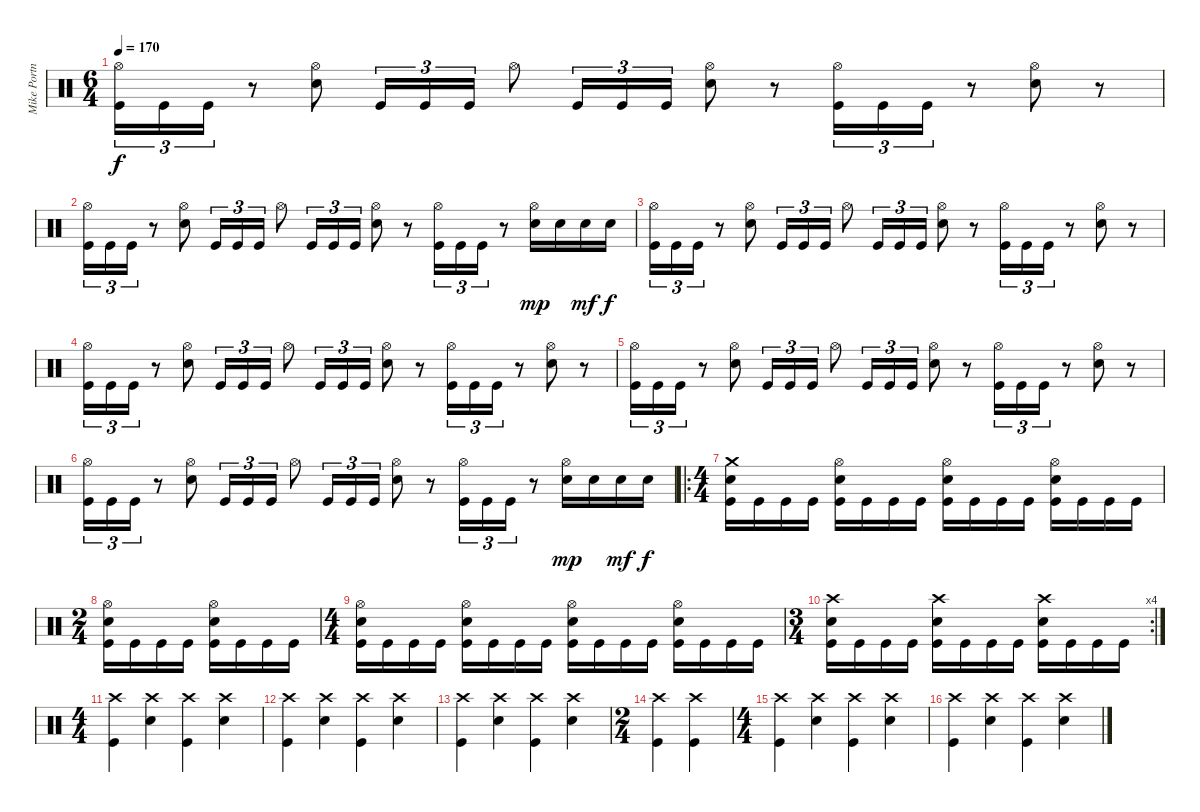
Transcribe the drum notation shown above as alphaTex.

\track ("Mike Portnoy" "Mike Portn") {instrument percussion}
\staff {score}
\articulation defaults
\ts (6 4)
\tempo 170
\clef neutral
\ks c
("Hi-Hat (open)" "Kick (hit)").16{tu (3 2) dy f} "Kick (hit)".16{tu (3 2)} "Kick (hit)".16{tu (3 2)} r.8 ("Hi-Hat (open)" "Electric Snare (hit)").8 "Kick (hit)".16{tu (3 2)} "Kick (hit)".16{tu (3 2)} "Kick (hit)".16{tu (3 2)} "Hi-Hat (open)".8 "Kick (hit)".16{tu (3 2)} "Kick (hit)".16{tu (3 2)} "Kick (hit)".16{tu (3 2)} ("Hi-Hat (open)" "Electric Snare (hit)").8 r.8 ("Hi-Hat (open)" "Kick (hit)").16{tu (3 2)} "Kick (hit)".16{tu (3 2)} "Kick (hit)".16{tu (3 2)} r.8 ("Hi-Hat (open)" "Electric Snare (hit)").8 r.8 |
("Hi-Hat (open)" "Kick (hit)").16{tu (3 2)} "Kick (hit)".16{tu (3 2)} "Kick (hit)".16{tu (3 2)} r.8 ("Hi-Hat (open)" "Electric Snare (hit)").8 "Kick (hit)".16{tu (3 2)} "Kick (hit)".16{tu (3 2)} "Kick (hit)".16{tu (3 2)} "Hi-Hat (open)".8 "Kick (hit)".16{tu (3 2)} "Kick (hit)".16{tu (3 2)} "Kick (hit)".16{tu (3 2)} ("Hi-Hat (open)" "Electric Snare (hit)").8 r.8 ("Hi-Hat (open)" "Kick (hit)").16{tu (3 2)} "Kick (hit)".16{tu (3 2)} "Kick (hit)".16{tu (3 2)} r.8 ("Hi-Hat (open)" "Electric Snare (hit)").16{dy mp} "Electric Snare (hit)".16 "Electric Snare (hit)".16{dy mf} "Electric Snare (hit)".16{dy f} |
("Hi-Hat (open)" "Kick (hit)").16{tu (3 2)} "Kick (hit)".16{tu (3 2)} "Kick (hit)".16{tu (3 2)} r.8 ("Hi-Hat (open)" "Electric Snare (hit)").8 "Kick (hit)".16{tu (3 2)} "Kick (hit)".16{tu (3 2)} "Kick (hit)".16{tu (3 2)} "Hi-Hat (open)".8 "Kick (hit)".16{tu (3 2)} "Kick (hit)".16{tu (3 2)} "Kick (hit)".16{tu (3 2)} ("Hi-Hat (open)" "Electric Snare (hit)").8 r.8 ("Hi-Hat (open)" "Kick (hit)").16{tu (3 2)} "Kick (hit)".16{tu (3 2)} "Kick (hit)".16{tu (3 2)} r.8 ("Hi-Hat (open)" "Electric Snare (hit)").8 r.8 |
("Hi-Hat (open)" "Kick (hit)").16{tu (3 2)} "Kick (hit)".16{tu (3 2)} "Kick (hit)".16{tu (3 2)} r.8 ("Hi-Hat (open)" "Electric Snare (hit)").8 "Kick (hit)".16{tu (3 2)} "Kick (hit)".16{tu (3 2)} "Kick (hit)".16{tu (3 2)} "Hi-Hat (open)".8 "Kick (hit)".16{tu (3 2)} "Kick (hit)".16{tu (3 2)} "Kick (hit)".16{tu (3 2)} ("Hi-Hat (open)" "Electric Snare (hit)").8 r.8 ("Hi-Hat (open)" "Kick (hit)").16{tu (3 2)} "Kick (hit)".16{tu (3 2)} "Kick (hit)".16{tu (3 2)} r.8 ("Hi-Hat (open)" "Electric Snare (hit)").8 r.8 |
("Hi-Hat (open)" "Kick (hit)").16{tu (3 2)} "Kick (hit)".16{tu (3 2)} "Kick (hit)".16{tu (3 2)} r.8 ("Hi-Hat (open)" "Electric Snare (hit)").8 "Kick (hit)".16{tu (3 2)} "Kick (hit)".16{tu (3 2)} "Kick (hit)".16{tu (3 2)} "Hi-Hat (open)".8 "Kick (hit)".16{tu (3 2)} "Kick (hit)".16{tu (3 2)} "Kick (hit)".16{tu (3 2)} ("Hi-Hat (open)" "Electric Snare (hit)").8 r.8 ("Hi-Hat (open)" "Kick (hit)").16{tu (3 2)} "Kick (hit)".16{tu (3 2)} "Kick (hit)".16{tu (3 2)} r.8 ("Hi-Hat (open)" "Electric Snare (hit)").8 r.8 |
("Hi-Hat (open)" "Kick (hit)").16{tu (3 2)} "Kick (hit)".16{tu (3 2)} "Kick (hit)".16{tu (3 2)} r.8 ("Hi-Hat (open)" "Electric Snare (hit)").8 "Kick (hit)".16{tu (3 2)} "Kick (hit)".16{tu (3 2)} "Kick (hit)".16{tu (3 2)} "Hi-Hat (open)".8 "Kick (hit)".16{tu (3 2)} "Kick (hit)".16{tu (3 2)} "Kick (hit)".16{tu (3 2)} ("Hi-Hat (open)" "Electric Snare (hit)").8 r.8 ("Hi-Hat (open)" "Kick (hit)").16{tu (3 2)} "Kick (hit)".16{tu (3 2)} "Kick (hit)".16{tu (3 2)} r.8 ("Hi-Hat (open)" "Electric Snare (hit)").16{dy mp} "Electric Snare (hit)".16 "Electric Snare (hit)".16{dy mf} "Electric Snare (hit)".16{dy f} |
\ro
\ts (4 4)
("Crash medium (hit)" "Kick (hit)" "Electric Snare (hit)").16 "Kick (hit)".16 "Kick (hit)".16 "Kick (hit)".16 ("Hi-Hat (open)" "Kick (hit)" "Electric Snare (hit)").16 "Kick (hit)".16 "Kick (hit)".16 "Kick (hit)".16 ("Hi-Hat (open)" "Kick (hit)" "Electric Snare (hit)").16 "Kick (hit)".16 "Kick (hit)".16 "Kick (hit)".16 ("Hi-Hat (open)" "Kick (hit)" "Electric Snare (hit)").16 "Kick (hit)".16 "Kick (hit)".16 "Kick (hit)".16 |
\ts (2 4)
("Hi-Hat (open)" "Kick (hit)" "Electric Snare (hit)").16 "Kick (hit)".16 "Kick (hit)".16 "Kick (hit)".16 ("Hi-Hat (open)" "Kick (hit)" "Electric Snare (hit)").16 "Kick (hit)".16 "Kick (hit)".16 "Kick (hit)".16 |
\ts (4 4)
("Hi-Hat (open)" "Kick (hit)" "Electric Snare (hit)").16 "Kick (hit)".16 "Kick (hit)".16 "Kick (hit)".16 ("Hi-Hat (open)" "Kick (hit)" "Electric Snare (hit)").16 "Kick (hit)".16 "Kick (hit)".16 "Kick (hit)".16 ("Hi-Hat (open)" "Kick (hit)" "Electric Snare (hit)").16 "Kick (hit)".16 "Kick (hit)".16 "Kick (hit)".16 ("Hi-Hat (open)" "Kick (hit)" "Electric Snare (hit)").16 "Kick (hit)".16 "Kick (hit)".16 "Kick (hit)".16 |
\rc 4
\ts (3 4)
("Crash high (hit)" "Kick (hit)" "Electric Snare (hit)").16 "Kick (hit)".16 "Kick (hit)".16 "Kick (hit)".16 ("Crash high (hit)" "Kick (hit)" "Electric Snare (hit)").16 "Kick (hit)".16 "Kick (hit)".16 "Kick (hit)".16 ("Crash high (hit)" "Kick (hit)" "Electric Snare (hit)").16 "Kick (hit)".16 "Kick (hit)".16 "Kick (hit)".16 |
\ts (4 4)
("Crash high (hit)" "Kick (hit)").4 ("Crash high (hit)" "Electric Snare (hit)").4 ("Crash high (hit)" "Kick (hit)").4 ("Crash high (hit)" "Electric Snare (hit)").4 |
("Crash high (hit)" "Kick (hit)").4 ("Crash high (hit)" "Electric Snare (hit)").4 ("Crash high (hit)" "Kick (hit)").4 ("Crash high (hit)" "Electric Snare (hit)").4 |
("Crash high (hit)" "Kick (hit)").4 ("Crash high (hit)" "Electric Snare (hit)").4 ("Crash high (hit)" "Kick (hit)").4 ("Crash high (hit)" "Electric Snare (hit)").4 |
\ts (2 4)
("Crash high (hit)" "Kick (hit)").4 ("Crash high (hit)" "Kick (hit)").4 |
\ts (4 4)
("Crash high (hit)" "Kick (hit)").4 ("Crash high (hit)" "Electric Snare (hit)").4 ("Crash high (hit)" "Kick (hit)").4 ("Crash high (hit)" "Electric Snare (hit)").4 |
("Crash high (hit)" "Kick (hit)").4 ("Crash high (hit)" "Electric Snare (hit)").4 ("Crash high (hit)" "Kick (hit)").4 ("Crash high (hit)" "Electric Snare (hit)").4
